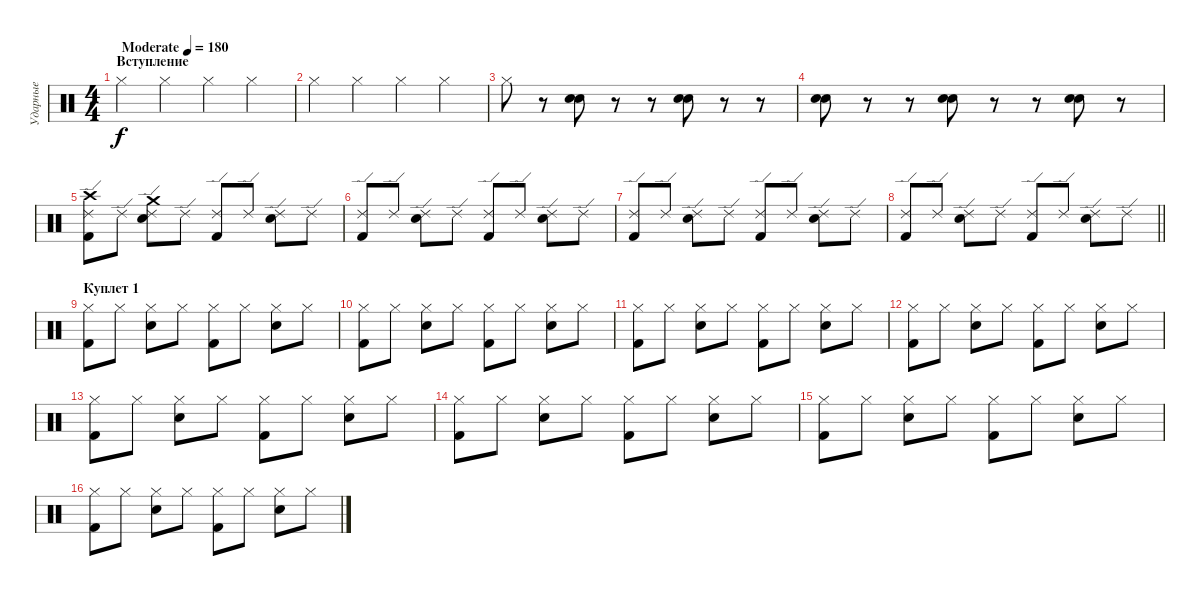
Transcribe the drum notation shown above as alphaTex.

\track ("Ударные" "Ударные") {instrument percussion}
\staff {score}
\articulation defaults
\ts (4 4)
\section ("" "Вступление")
\tempo (180 "Moderate")
\clef neutral
\ks c "Hi-Hat (closed)".4{dy f} "Hi-Hat (closed)".4 "Hi-Hat (closed)".4 "Hi-Hat (closed)".4
|
"Hi-Hat (closed)".4 "Hi-Hat (closed)".4 "Hi-Hat (closed)".4 "Hi-Hat (closed)".4 |
"Hi-Hat (closed)".8 r.8 ("Electric Snare (hit)" "Electric Snare (hit)").8 r.8 r.8 ("Electric Snare (hit)" "Electric Snare (hit)").8 r.8 r.8 |
("Electric Snare (hit)" "Electric Snare (hit)").8 r.8 r.8 ("Electric Snare (hit)" "Electric Snare (hit)").8 r.8 r.8 ("Electric Snare (hit)" "Electric Snare (hit)").8 r.8 |
("Crash high (hit)" "Ride (edge) 2" "Kick (hit) 2").8 "Ride (edge) 2".8 ("Crash medium (hit)" "Ride (edge) 2" "Electric Snare (hit)").8 "Ride (edge) 2".8 ("Ride (edge) 2" "Kick (hit) 2").8 "Ride (edge) 2".8 ("Ride (edge) 2" "Electric Snare (hit)").8 "Ride (edge) 2".8 |
("Ride (edge) 2" "Kick (hit) 2").8 "Ride (edge) 2".8 ("Ride (edge) 2" "Electric Snare (hit)").8 "Ride (edge) 2".8 ("Ride (edge) 2" "Kick (hit) 2").8 "Ride (edge) 2".8 ("Ride (edge) 2" "Electric Snare (hit)").8 "Ride (edge) 2".8 |
("Ride (edge) 2" "Kick (hit) 2").8 "Ride (edge) 2".8 ("Ride (edge) 2" "Electric Snare (hit)").8 "Ride (edge) 2".8 ("Ride (edge) 2" "Kick (hit) 2").8 "Ride (edge) 2".8 ("Ride (edge) 2" "Electric Snare (hit)").8 "Ride (edge) 2".8 |
\barLineRight lightlight
("Ride (edge) 2" "Kick (hit) 2").8 "Ride (edge) 2".8 ("Ride (edge) 2" "Electric Snare (hit)").8 "Ride (edge) 2".8 ("Ride (edge) 2" "Kick (hit) 2").8 "Ride (edge) 2".8 ("Ride (edge) 2" "Electric Snare (hit)").8 "Ride (edge) 2".8 |
\section ("" "Куплет 1")
("Hi-Hat (closed)" "Kick (hit) 2").8 "Hi-Hat (closed)".8 ("Hi-Hat (closed)" "Electric Snare (hit)").8 "Hi-Hat (closed)".8 ("Hi-Hat (closed)" "Kick (hit) 2").8 "Hi-Hat (closed)".8 ("Hi-Hat (closed)" "Electric Snare (hit)").8 "Hi-Hat (closed)".8 |
("Hi-Hat (closed)" "Kick (hit) 2").8 "Hi-Hat (closed)".8 ("Hi-Hat (closed)" "Electric Snare (hit)").8 "Hi-Hat (closed)".8 ("Hi-Hat (closed)" "Kick (hit) 2").8 "Hi-Hat (closed)".8 ("Hi-Hat (closed)" "Electric Snare (hit)").8 "Hi-Hat (closed)".8 |
("Hi-Hat (closed)" "Kick (hit) 2").8 "Hi-Hat (closed)".8 ("Hi-Hat (closed)" "Electric Snare (hit)").8 "Hi-Hat (closed)".8 ("Hi-Hat (closed)" "Kick (hit) 2").8 "Hi-Hat (closed)".8 ("Hi-Hat (closed)" "Electric Snare (hit)").8 "Hi-Hat (closed)".8 |
("Hi-Hat (closed)" "Kick (hit) 2").8 "Hi-Hat (closed)".8 ("Hi-Hat (closed)" "Electric Snare (hit)").8 "Hi-Hat (closed)".8 ("Hi-Hat (closed)" "Kick (hit) 2").8 "Hi-Hat (closed)".8 ("Hi-Hat (closed)" "Electric Snare (hit)").8 "Hi-Hat (closed)".8 |
("Hi-Hat (closed)" "Kick (hit) 2").8 "Hi-Hat (closed)".8 ("Hi-Hat (closed)" "Electric Snare (hit)").8 "Hi-Hat (closed)".8 ("Hi-Hat (closed)" "Kick (hit) 2").8 "Hi-Hat (closed)".8 ("Hi-Hat (closed)" "Electric Snare (hit)").8 "Hi-Hat (closed)".8 |
("Hi-Hat (closed)" "Kick (hit) 2").8 "Hi-Hat (closed)".8 ("Hi-Hat (closed)" "Electric Snare (hit)").8 "Hi-Hat (closed)".8 ("Hi-Hat (closed)" "Kick (hit) 2").8 "Hi-Hat (closed)".8 ("Hi-Hat (closed)" "Electric Snare (hit)").8 "Hi-Hat (closed)".8 |
("Hi-Hat (closed)" "Kick (hit) 2").8 "Hi-Hat (closed)".8 ("Hi-Hat (closed)" "Electric Snare (hit)").8 "Hi-Hat (closed)".8 ("Hi-Hat (closed)" "Kick (hit) 2").8 "Hi-Hat (closed)".8 ("Hi-Hat (closed)" "Electric Snare (hit)").8 "Hi-Hat (closed)".8 |
("Hi-Hat (closed)" "Kick (hit) 2").8 "Hi-Hat (closed)".8 ("Hi-Hat (closed)" "Electric Snare (hit)").8 "Hi-Hat (closed)".8 ("Hi-Hat (closed)" "Kick (hit) 2").8 "Hi-Hat (closed)".8 ("Hi-Hat (closed)" "Electric Snare (hit)").8 "Hi-Hat (closed)".8
